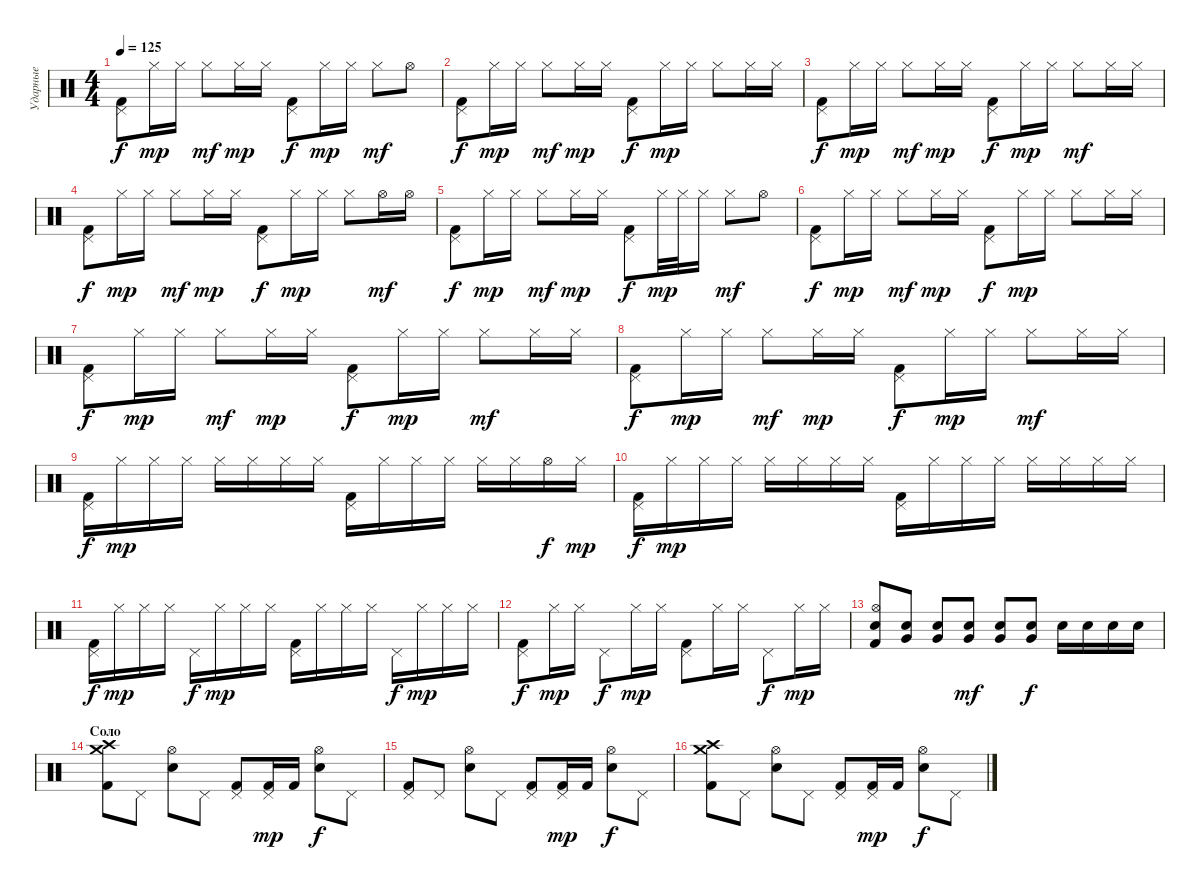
\track ("Ударные" "Ударные") {instrument percussion}
\staff {score}
\articulation defaults
\ts (4 4)
\tempo 125
\clef neutral
\ks c
("Pedal Hi-Hat (hit)" "Kick (hit) 2").8{dy f} "Hi-Hat (closed)".16{dy mp} "Hi-Hat (closed)".16 "Hi-Hat (closed)".8{dy mf} "Hi-Hat (closed)".16{dy mp} "Hi-Hat (closed)".16 ("Pedal Hi-Hat (hit)" "Kick (hit) 2").8{dy f} "Hi-Hat (closed)".16{dy mp} "Hi-Hat (closed)".16 "Hi-Hat (closed)".8{dy mf} "Hi-Hat (open)".8 |
("Pedal Hi-Hat (hit)" "Kick (hit) 2").8{dy f} "Hi-Hat (closed)".16{dy mp} "Hi-Hat (closed)".16 "Hi-Hat (closed)".8{dy mf} "Hi-Hat (closed)".16{dy mp} "Hi-Hat (closed)".16 ("Pedal Hi-Hat (hit)" "Kick (hit) 2").8{dy f} "Hi-Hat (closed)".16{dy mp} "Hi-Hat (closed)".16 "Hi-Hat (closed)".8 "Hi-Hat (closed)".16 "Hi-Hat (closed)".16 |
("Pedal Hi-Hat (hit)" "Kick (hit) 2").8{dy f} "Hi-Hat (closed)".16{dy mp} "Hi-Hat (closed)".16 "Hi-Hat (closed)".8{dy mf} "Hi-Hat (closed)".16{dy mp} "Hi-Hat (closed)".16 ("Pedal Hi-Hat (hit)" "Kick (hit) 2").8{dy f} "Hi-Hat (closed)".16{dy mp} "Hi-Hat (closed)".16 "Hi-Hat (closed)".8{dy mf} "Hi-Hat (closed)".16 "Hi-Hat (closed)".16 |
("Pedal Hi-Hat (hit)" "Kick (hit) 2").8{dy f} "Hi-Hat (closed)".16{dy mp} "Hi-Hat (closed)".16 "Hi-Hat (closed)".8{dy mf} "Hi-Hat (closed)".16{dy mp} "Hi-Hat (closed)".16 ("Pedal Hi-Hat (hit)" "Kick (hit) 2").8{dy f} "Hi-Hat (closed)".16{dy mp} "Hi-Hat (closed)".16 "Hi-Hat (closed)".8 "Hi-Hat (open)".16{dy mf} "Hi-Hat (open)".16 |
("Pedal Hi-Hat (hit)" "Kick (hit) 2").8{dy f} "Hi-Hat (closed)".16{dy mp} "Hi-Hat (closed)".16 "Hi-Hat (closed)".8{dy mf} "Hi-Hat (closed)".16{dy mp} "Hi-Hat (closed)".16 ("Pedal Hi-Hat (hit)" "Kick (hit) 2").8{dy f} "Hi-Hat (closed)".32{dy mp} "Hi-Hat (closed)".32 "Hi-Hat (closed)".16 "Hi-Hat (closed)".8{dy mf} "Hi-Hat (open)".8 |
("Pedal Hi-Hat (hit)" "Kick (hit) 2").8{dy f} "Hi-Hat (closed)".16{dy mp} "Hi-Hat (closed)".16 "Hi-Hat (closed)".8{dy mf} "Hi-Hat (closed)".16{dy mp} "Hi-Hat (closed)".16 ("Pedal Hi-Hat (hit)" "Kick (hit) 2").8{dy f} "Hi-Hat (closed)".16{dy mp} "Hi-Hat (closed)".16 "Hi-Hat (closed)".8 "Hi-Hat (closed)".16 "Hi-Hat (closed)".16 |
("Pedal Hi-Hat (hit)" "Kick (hit) 2").8{dy f} "Hi-Hat (closed)".16{dy mp} "Hi-Hat (closed)".16 "Hi-Hat (closed)".8{dy mf} "Hi-Hat (closed)".16{dy mp} "Hi-Hat (closed)".16 ("Pedal Hi-Hat (hit)" "Kick (hit) 2").8{dy f} "Hi-Hat (closed)".16{dy mp} "Hi-Hat (closed)".16 "Hi-Hat (closed)".8{dy mf} "Hi-Hat (closed)".16 "Hi-Hat (closed)".16 |
("Pedal Hi-Hat (hit)" "Kick (hit) 2").8{dy f} "Hi-Hat (closed)".16{dy mp} "Hi-Hat (closed)".16 "Hi-Hat (closed)".8{dy mf} "Hi-Hat (closed)".16{dy mp} "Hi-Hat (closed)".16 ("Pedal Hi-Hat (hit)" "Kick (hit) 2").8{dy f} "Hi-Hat (closed)".16{dy mp} "Hi-Hat (closed)".16 "Hi-Hat (closed)".8{dy mf} "Hi-Hat (closed)".16 "Hi-Hat (closed)".16 |
("Pedal Hi-Hat (hit)" "Kick (hit) 2").16{dy f} "Hi-Hat (closed)".16{dy mp} "Hi-Hat (closed)".16 "Hi-Hat (closed)".16 "Hi-Hat (closed)".16 "Hi-Hat (closed)".16 "Hi-Hat (closed)".16 "Hi-Hat (closed)".16 ("Pedal Hi-Hat (hit)" "Kick (hit) 2").16 "Hi-Hat (closed)".16 "Hi-Hat (closed)".16 "Hi-Hat (closed)".16 "Hi-Hat (closed)".16 "Hi-Hat (closed)".16 "Hi-Hat (open)".16{dy f} "Hi-Hat (closed)".16{dy mp} |
("Pedal Hi-Hat (hit)" "Kick (hit) 2").16{dy f} "Hi-Hat (closed)".16{dy mp} "Hi-Hat (closed)".16 "Hi-Hat (closed)".16 "Hi-Hat (closed)".16 "Hi-Hat (closed)".16 "Hi-Hat (closed)".16 "Hi-Hat (closed)".16 ("Pedal Hi-Hat (hit)" "Kick (hit) 2").16 "Hi-Hat (closed)".16 "Hi-Hat (closed)".16 "Hi-Hat (closed)".16 "Hi-Hat (closed)".16 "Hi-Hat (closed)".16 "Hi-Hat (closed)".16 "Hi-Hat (closed)".16 |
("Pedal Hi-Hat (hit)" "Kick (hit) 2").16{dy f} "Hi-Hat (closed)".16{dy mp} "Hi-Hat (closed)".16 "Hi-Hat (closed)".16 "Pedal Hi-Hat (hit)".16{dy f} "Hi-Hat (closed)".16{dy mp} "Hi-Hat (closed)".16 "Hi-Hat (closed)".16 ("Pedal Hi-Hat (hit)" "Kick (hit) 2").16 "Hi-Hat (closed)".16 "Hi-Hat (closed)".16 "Hi-Hat (closed)".16 "Pedal Hi-Hat (hit)".16{dy f} "Hi-Hat (closed)".16{dy mp} "Hi-Hat (closed)".16 "Hi-Hat (closed)".16 |
("Pedal Hi-Hat (hit)" "Kick (hit) 2").8{dy f} "Hi-Hat (closed)".16{dy mp} "Hi-Hat (closed)".16 "Pedal Hi-Hat (hit)".8{dy f} "Hi-Hat (closed)".16{dy mp} "Hi-Hat (closed)".16 ("Pedal Hi-Hat (hit)" "Kick (hit) 2").8 "Hi-Hat (closed)".16 "Hi-Hat (closed)".16 "Pedal Hi-Hat (hit)".8{dy f} "Hi-Hat (closed)".16{dy mp} "Hi-Hat (closed)".16 |
("Hi-Hat (open)" "Snare (hit) 2" "Kick (hit) 2").8 ("Snare (hit) 2" "Very Low Tom (hit)").8 ("Snare (hit) 2" "Very Low Tom (hit)").8 ("Snare (hit) 2" "Very Low Tom (hit)").8{dy mf} ("Snare (hit) 2" "Very Low Tom (hit)").8 ("Snare (hit) 2" "Very Low Tom (hit)").8{dy f} "Snare (hit) 2".16 "Snare (hit) 2".16 "Snare (hit) 2".16 "Snare (hit) 2".16 |
\section ("" "Соло")
("Crash high (hit)" "Crash medium (hit)" "Kick (hit) 2").8 "Pedal Hi-Hat (hit)".8 ("Hi-Hat (open)" "Snare (hit) 2").8 "Pedal Hi-Hat (hit)".8 ("Pedal Hi-Hat (hit)" "Kick (hit) 2").8 ("Pedal Hi-Hat (hit)" "Kick (hit) 2").16{dy mp} "Kick (hit) 2".16 ("Hi-Hat (open)" "Snare (hit) 2").8{dy f} "Pedal Hi-Hat (hit)".8 |
("Pedal Hi-Hat (hit)" "Kick (hit) 2").8 "Pedal Hi-Hat (hit)".8 ("Hi-Hat (open)" "Snare (hit) 2").8 "Pedal Hi-Hat (hit)".8 ("Pedal Hi-Hat (hit)" "Kick (hit) 2").8 ("Pedal Hi-Hat (hit)" "Kick (hit) 2").16{dy mp} "Kick (hit) 2".16 ("Hi-Hat (open)" "Snare (hit) 2").8{dy f} "Pedal Hi-Hat (hit)".8 |
("Crash high (hit)" "Crash medium (hit)" "Kick (hit) 2").8 "Pedal Hi-Hat (hit)".8 ("Hi-Hat (open)" "Snare (hit) 2").8 "Pedal Hi-Hat (hit)".8 ("Pedal Hi-Hat (hit)" "Kick (hit) 2").8 ("Pedal Hi-Hat (hit)" "Kick (hit) 2").16{dy mp} "Kick (hit) 2".16 ("Hi-Hat (open)" "Snare (hit) 2").8{dy f} "Pedal Hi-Hat (hit)".8
